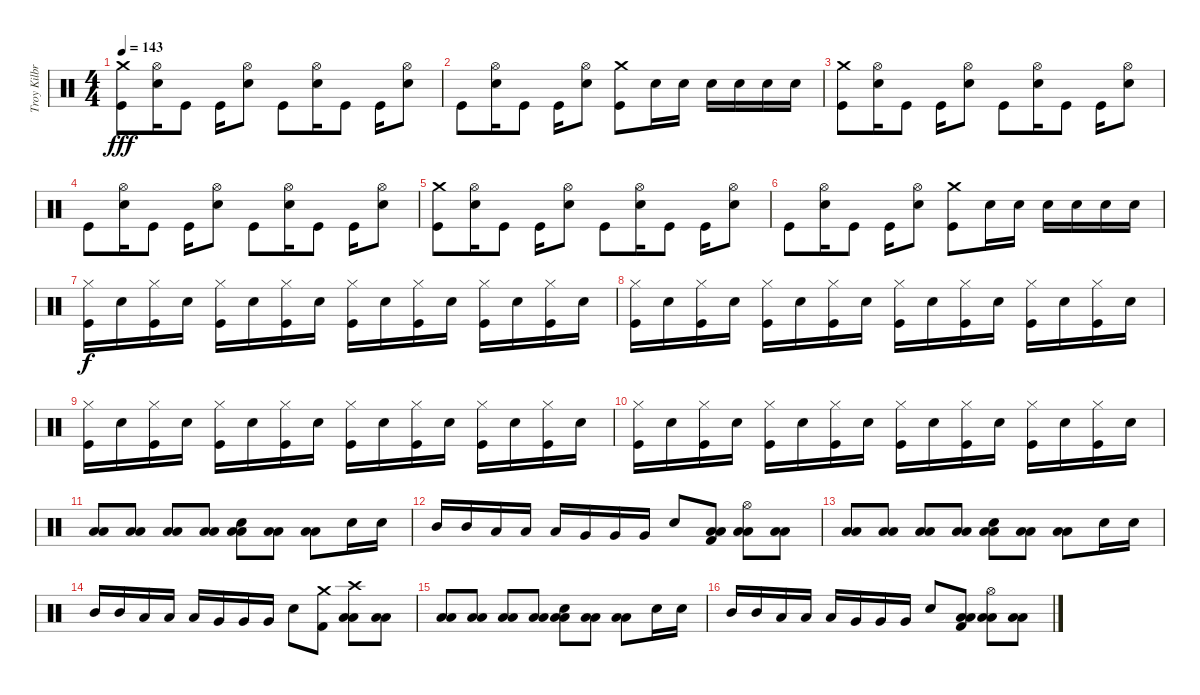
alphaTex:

\track ("Troy Kilbride" "Troy Kilbr") {instrument percussion}
\staff {score}
\articulation defaults
\ts (4 4)
\tempo 143
\clef neutral
\ks c
("Crash medium (hit)" "Kick (hit)").8{dy fff} ("Hi-Hat (open)" "Electric Snare (hit)").16 "Kick (hit)".8 "Kick (hit)".16 ("Hi-Hat (open)" "Electric Snare (hit)").8 "Kick (hit)".8 ("Hi-Hat (open)" "Electric Snare (hit)").16 "Kick (hit)".8 "Kick (hit)".16 ("Hi-Hat (open)" "Electric Snare (hit)").8 |
"Kick (hit)".8 ("Hi-Hat (open)" "Electric Snare (hit)").16 "Kick (hit)".8 "Kick (hit)".16 ("Hi-Hat (open)" "Electric Snare (hit)").8 ("Crash medium (hit)" "Kick (hit)").8 "Electric Snare (hit)".16 "Electric Snare (hit)".16 "Electric Snare (hit)".16 "Electric Snare (hit)".16 "Electric Snare (hit)".16 "Electric Snare (hit)".16 |
("Crash medium (hit)" "Kick (hit)").8 ("Hi-Hat (open)" "Electric Snare (hit)").16 "Kick (hit)".8 "Kick (hit)".16 ("Hi-Hat (open)" "Electric Snare (hit)").8 "Kick (hit)".8 ("Hi-Hat (open)" "Electric Snare (hit)").16 "Kick (hit)".8 "Kick (hit)".16 ("Hi-Hat (open)" "Electric Snare (hit)").8 |
"Kick (hit)".8 ("Hi-Hat (open)" "Electric Snare (hit)").16 "Kick (hit)".8 "Kick (hit)".16 ("Hi-Hat (open)" "Electric Snare (hit)").8 "Kick (hit)".8 ("Hi-Hat (open)" "Electric Snare (hit)").16 "Kick (hit)".8 "Kick (hit)".16 ("Hi-Hat (open)" "Electric Snare (hit)").8 |
("Crash medium (hit)" "Kick (hit)").8 ("Hi-Hat (open)" "Electric Snare (hit)").16 "Kick (hit)".8 "Kick (hit)".16 ("Hi-Hat (open)" "Electric Snare (hit)").8 "Kick (hit)".8 ("Hi-Hat (open)" "Electric Snare (hit)").16 "Kick (hit)".8 "Kick (hit)".16 ("Hi-Hat (open)" "Electric Snare (hit)").8 |
"Kick (hit)".8 ("Hi-Hat (open)" "Electric Snare (hit)").16 "Kick (hit)".8 "Kick (hit)".16 ("Hi-Hat (open)" "Electric Snare (hit)").8 ("Crash medium (hit)" "Kick (hit)").8 "Electric Snare (hit)".16 "Electric Snare (hit)".16 "Electric Snare (hit)".16 "Electric Snare (hit)".16 "Electric Snare (hit)".16 "Electric Snare (hit)".16 |
("Hi-Hat (closed)" "Kick (hit)").16{dy f} "Electric Snare (hit)".16 ("Hi-Hat (closed)" "Kick (hit)").16 "Electric Snare (hit)".16 ("Hi-Hat (closed)" "Kick (hit)").16 "Electric Snare (hit)".16 ("Hi-Hat (closed)" "Kick (hit)").16 "Electric Snare (hit)".16 ("Hi-Hat (closed)" "Kick (hit)").16 "Electric Snare (hit)".16 ("Hi-Hat (closed)" "Kick (hit)").16 "Electric Snare (hit)".16 ("Hi-Hat (closed)" "Kick (hit)").16 "Electric Snare (hit)".16 ("Hi-Hat (closed)" "Kick (hit)").16 "Electric Snare (hit)".16 |
("Hi-Hat (closed)" "Kick (hit)").16 "Electric Snare (hit)".16 ("Hi-Hat (closed)" "Kick (hit)").16 "Electric Snare (hit)".16 ("Hi-Hat (closed)" "Kick (hit)").16 "Electric Snare (hit)".16 ("Hi-Hat (closed)" "Kick (hit)").16 "Electric Snare (hit)".16 ("Hi-Hat (closed)" "Kick (hit)").16 "Electric Snare (hit)".16 ("Hi-Hat (closed)" "Kick (hit)").16 "Electric Snare (hit)".16 ("Hi-Hat (closed)" "Kick (hit)").16 "Electric Snare (hit)".16 ("Hi-Hat (closed)" "Kick (hit)").16 "Electric Snare (hit)".16 |
("Hi-Hat (closed)" "Kick (hit)").16 "Electric Snare (hit)".16 ("Hi-Hat (closed)" "Kick (hit)").16 "Electric Snare (hit)".16 ("Hi-Hat (closed)" "Kick (hit)").16 "Electric Snare (hit)".16 ("Hi-Hat (closed)" "Kick (hit)").16 "Electric Snare (hit)".16 ("Hi-Hat (closed)" "Kick (hit)").16 "Electric Snare (hit)".16 ("Hi-Hat (closed)" "Kick (hit)").16 "Electric Snare (hit)".16 ("Hi-Hat (closed)" "Kick (hit)").16 "Electric Snare (hit)".16 ("Hi-Hat (closed)" "Kick (hit)").16 "Electric Snare (hit)".16 |
("Hi-Hat (closed)" "Kick (hit)").16 "Electric Snare (hit)".16 ("Hi-Hat (closed)" "Kick (hit)").16 "Electric Snare (hit)".16 ("Hi-Hat (closed)" "Kick (hit)").16 "Electric Snare (hit)".16 ("Hi-Hat (closed)" "Kick (hit)").16 "Electric Snare (hit)".16 ("Hi-Hat (closed)" "Kick (hit)").16 "Electric Snare (hit)".16 ("Hi-Hat (closed)" "Kick (hit)").16 "Electric Snare (hit)".16 ("Hi-Hat (closed)" "Kick (hit)").16 "Electric Snare (hit)".16 ("Hi-Hat (closed)" "Kick (hit)").16 "Electric Snare (hit)".16 |
("Low Floor Tom (hit)" "Low Floor Tom (hit)").8 ("Low Floor Tom (hit)" "Low Floor Tom (hit)").8 ("Low Floor Tom (hit)" "Low Floor Tom (hit)").8 ("Low Floor Tom (hit)" "Low Floor Tom (hit)").8 ("Low Floor Tom (hit)" "Snare (hit) 2" "Low Floor Tom (hit)").8 ("Low Floor Tom (hit)" "Low Floor Tom (hit)").8 ("Low Floor Tom (hit)" "Low Floor Tom (hit)").8 "Snare (hit) 2".16 "Snare (hit) 2".16 |
"Mid Tom (hit)".16 "Mid Tom (hit)".16 "Low Tom (hit)".16 "Low Tom (hit)".16 "Low Tom (hit)".16 "Very Low Tom (hit)".16 "Very Low Tom (hit)".16 "Very Low Tom (hit)".16 "Snare (hit) 2".8 ("Low Floor Tom (hit)" "Low Floor Tom (hit)" "Kick (hit) 2").8 ("Low Floor Tom (hit)" "Low Floor Tom (hit)" "Hi-Hat (open)").8 ("Low Floor Tom (hit)" "Low Floor Tom (hit)").8 |
("Low Floor Tom (hit)" "Low Floor Tom (hit)").8 ("Low Floor Tom (hit)" "Low Floor Tom (hit)").8 ("Low Floor Tom (hit)" "Low Floor Tom (hit)").8 ("Low Floor Tom (hit)" "Low Floor Tom (hit)").8 ("Low Floor Tom (hit)" "Snare (hit) 2" "Low Floor Tom (hit)").8 ("Low Floor Tom (hit)" "Low Floor Tom (hit)").8 ("Low Floor Tom (hit)" "Low Floor Tom (hit)").8 "Snare (hit) 2".16 "Snare (hit) 2".16 |
"Mid Tom (hit)".16 "Mid Tom (hit)".16 "Low Tom (hit)".16 "Low Tom (hit)".16 "Low Tom (hit)".16 "Very Low Tom (hit)".16 "Very Low Tom (hit)".16 "Very Low Tom (hit)".16 "Snare (hit) 2".8 ("Crash medium (hit)" "Kick (hit) 2").8 ("Low Floor Tom (hit)" "Low Floor Tom (hit)" "Crash high (hit)").8 ("Low Floor Tom (hit)" "Low Floor Tom (hit)").8 |
("Low Floor Tom (hit)" "Low Floor Tom (hit)").8 ("Low Floor Tom (hit)" "Low Floor Tom (hit)").8 ("Low Floor Tom (hit)" "Low Floor Tom (hit)").8 ("Low Floor Tom (hit)" "Low Floor Tom (hit)").8 ("Low Floor Tom (hit)" "Snare (hit) 2" "Low Floor Tom (hit)").8 ("Low Floor Tom (hit)" "Low Floor Tom (hit)").8 ("Low Floor Tom (hit)" "Low Floor Tom (hit)").8 "Snare (hit) 2".16 "Snare (hit) 2".16 |
"Mid Tom (hit)".16 "Mid Tom (hit)".16 "Low Tom (hit)".16 "Low Tom (hit)".16 "Low Tom (hit)".16 "Very Low Tom (hit)".16 "Very Low Tom (hit)".16 "Very Low Tom (hit)".16 "Snare (hit) 2".8 ("Low Floor Tom (hit)" "Low Floor Tom (hit)" "Kick (hit) 2").8 ("Low Floor Tom (hit)" "Low Floor Tom (hit)" "Hi-Hat (open)").8 ("Low Floor Tom (hit)" "Low Floor Tom (hit)").8
